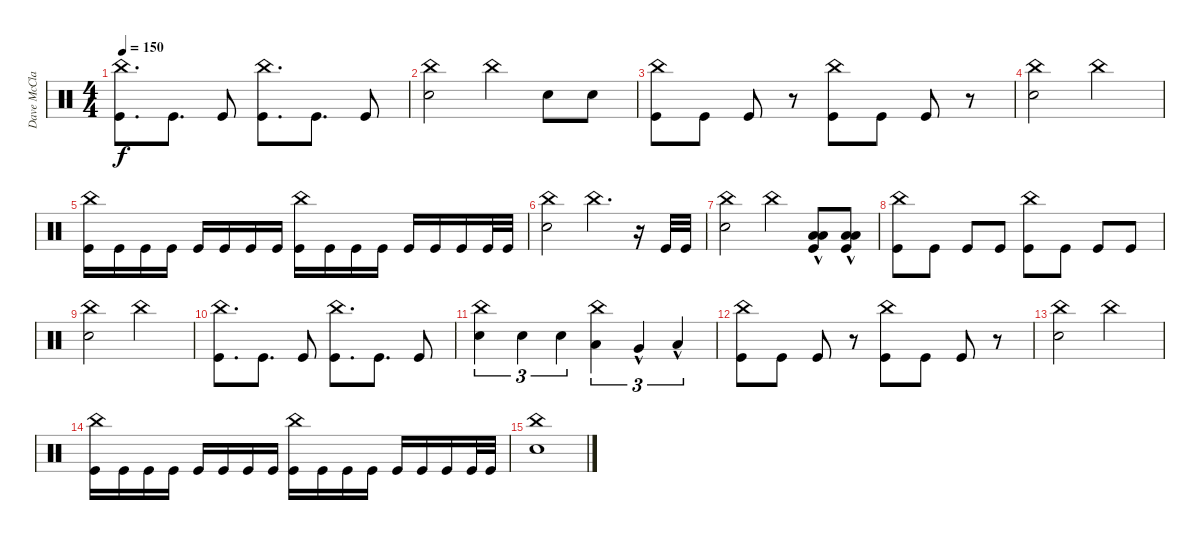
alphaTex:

\track ("Dave McClaine" "Dave McCla") {instrument percussion}
\staff {score}
\articulation defaults
\ts (4 4)
\tempo 150
\clef neutral
\ks c
("Kick (hit)" "China (hit)").8{d dy f} "Kick (hit)".8{d} "Kick (hit)".8 ("Kick (hit)" "China (hit)").8{d} "Kick (hit)".8{d} "Kick (hit)".8 |
("Snare (hit) 2" "China (hit)").2 "China (hit)".4 "Snare (hit) 2".8 "Snare (hit) 2".8 |
("Kick (hit)" "China (hit)").8 "Kick (hit)".8 "Kick (hit)".8 r.8 ("Kick (hit)" "China (hit)").8 "Kick (hit)".8 "Kick (hit)".8 r.8 |
("Snare (hit) 2" "China (hit)").2 "China (hit)".2 |
("Kick (hit)" "China (hit)").16 "Kick (hit)".16 "Kick (hit)".16 "Kick (hit)".16 "Kick (hit)".16 "Kick (hit)".16 "Kick (hit)".16 "Kick (hit)".16 ("Kick (hit)" "China (hit)").16 "Kick (hit)".16 "Kick (hit)".16 "Kick (hit)".16 "Kick (hit)".16 "Kick (hit)".16 "Kick (hit)".16 "Kick (hit)".32 "Kick (hit)".32 |
("Snare (hit) 2" "China (hit)").2 "China (hit)".4{d} r.16 "Kick (hit)".32 "Kick (hit)".32 |
("Snare (hit) 2" "China (hit)").2 "China (hit)".4 ("Low Tom (hit)" "Low Floor Tom (hit)"{hac} "Kick (hit)").8 ("Low Tom (hit)" "Low Floor Tom (hit)"{hac} "Kick (hit)").8 |
("Kick (hit)" "China (hit)").8 "Kick (hit)".8 "Kick (hit)".8 "Kick (hit)".8 ("Kick (hit)" "China (hit)").8 "Kick (hit)".8 "Kick (hit)".8 "Kick (hit)".8 |
("Snare (hit) 2" "China (hit)").2 "China (hit)".2 |
("Kick (hit)" "China (hit)").8{d} "Kick (hit)".8{d} "Kick (hit)".8 ("Kick (hit)" "China (hit)").8{d} "Kick (hit)".8{d} "Kick (hit)".8 |
("Snare (hit) 2" "China (hit)").4{tu (3 2)} "Snare (hit) 2".4{tu (3 2)} "Snare (hit) 2".4{tu (3 2)} ("China (hit)" "Low Tom (hit)").4{tu (3 2)} "Very Low Tom (hit)"{hac}.4{tu (3 2)} "Low Floor Tom (hit)"{hac}.4{tu (3 2)} |
("Kick (hit)" "China (hit)").8 "Kick (hit)".8 "Kick (hit)".8 r.8 ("Kick (hit)" "China (hit)").8 "Kick (hit)".8 "Kick (hit)".8 r.8 |
("Snare (hit) 2" "China (hit)").2 "China (hit)".2 |
("Kick (hit)" "China (hit)").16 "Kick (hit)".16 "Kick (hit)".16 "Kick (hit)".16 "Kick (hit)".16 "Kick (hit)".16 "Kick (hit)".16 "Kick (hit)".16 ("Kick (hit)" "China (hit)").16 "Kick (hit)".16 "Kick (hit)".16 "Kick (hit)".16 "Kick (hit)".16 "Kick (hit)".16 "Kick (hit)".16 "Kick (hit)".32 "Kick (hit)".32 |
("Snare (hit) 2" "China (hit)").1
